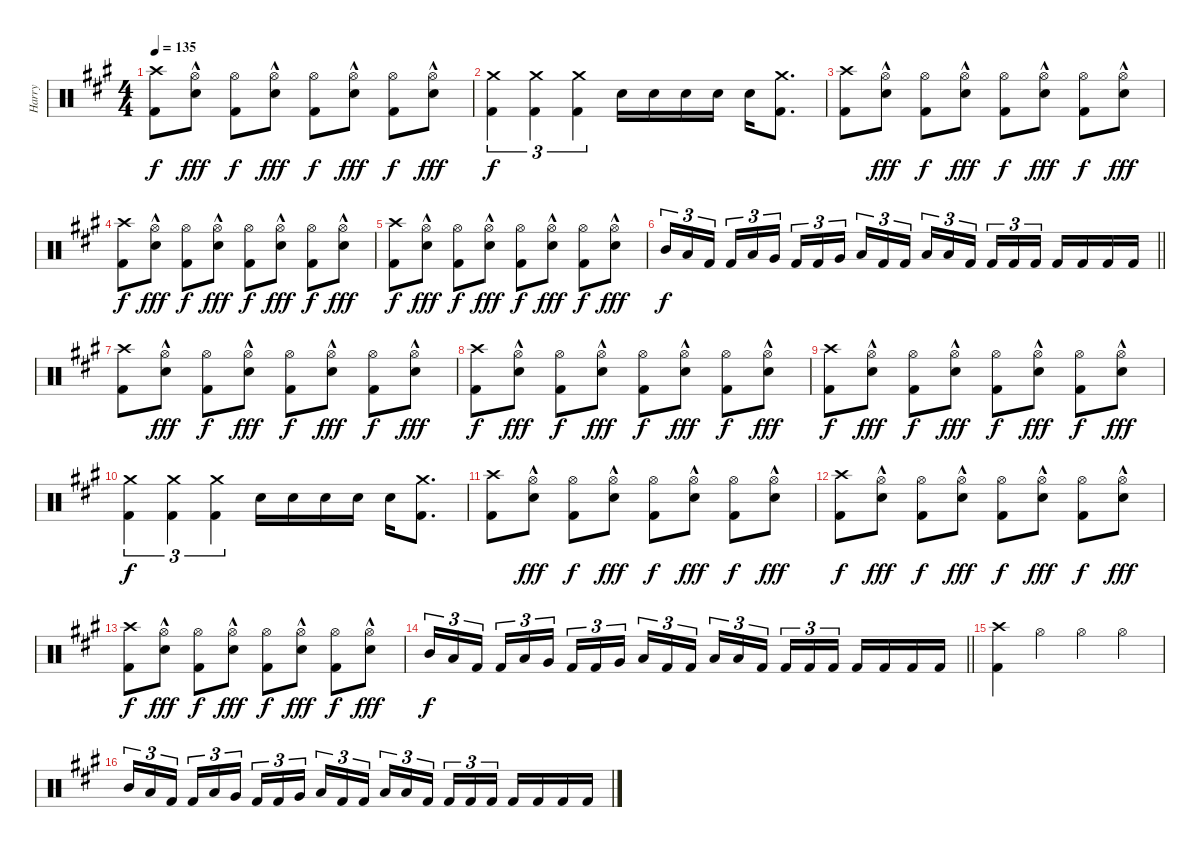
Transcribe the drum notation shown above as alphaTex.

\track ("Harry" "Harry") {instrument percussion}
\staff {score}
\articulation defaults
\ts (4 4)
\tempo 135
\clef neutral
\ks a
("Crash high (hit)" "Kick (hit) 2").8{dy f} ("Hi-Hat (open)"{hac} "Snare (hit) 2"{hac}).8{dy fff} ("Hi-Hat (open)" "Kick (hit) 2").8{dy f} ("Hi-Hat (open)"{hac} "Snare (hit) 2"{hac}).8{dy fff} ("Hi-Hat (open)" "Kick (hit) 2").8{dy f} ("Hi-Hat (open)"{hac} "Snare (hit) 2"{hac}).8{dy fff} ("Hi-Hat (open)" "Kick (hit) 2").8{dy f} ("Hi-Hat (open)"{hac} "Snare (hit) 2"{hac}).8{dy fff} |
("Crash medium (hit)" "Kick (hit) 2").4{tu (3 2) dy f} ("Crash medium (hit)" "Kick (hit) 2").4{tu (3 2)} ("Crash medium (hit)" "Kick (hit) 2").4{tu (3 2)} "Snare (hit) 2".16 "Snare (hit) 2".16 "Snare (hit) 2".16 "Snare (hit) 2".16 "Snare (hit) 2".16 ("Crash medium (hit)" "Kick (hit) 2").8{d} |
("Crash high (hit)" "Kick (hit) 2").8 ("Hi-Hat (open)"{hac} "Snare (hit) 2"{hac}).8{dy fff} ("Hi-Hat (open)" "Kick (hit) 2").8{dy f} ("Hi-Hat (open)"{hac} "Snare (hit) 2"{hac}).8{dy fff} ("Hi-Hat (open)" "Kick (hit) 2").8{dy f} ("Hi-Hat (open)"{hac} "Snare (hit) 2"{hac}).8{dy fff} ("Hi-Hat (open)" "Kick (hit) 2").8{dy f} ("Hi-Hat (open)"{hac} "Snare (hit) 2"{hac}).8{dy fff} |
("Crash high (hit)" "Kick (hit) 2").8{dy f} ("Hi-Hat (open)"{hac} "Snare (hit) 2"{hac}).8{dy fff} ("Hi-Hat (open)" "Kick (hit) 2").8{dy f} ("Hi-Hat (open)"{hac} "Snare (hit) 2"{hac}).8{dy fff} ("Hi-Hat (open)" "Kick (hit) 2").8{dy f} ("Hi-Hat (open)"{hac} "Snare (hit) 2"{hac}).8{dy fff} ("Hi-Hat (open)" "Kick (hit) 2").8{dy f} ("Hi-Hat (open)"{hac} "Snare (hit) 2"{hac}).8{dy fff} |
("Crash high (hit)" "Kick (hit) 2").8{dy f} ("Hi-Hat (open)"{hac} "Snare (hit) 2"{hac}).8{dy fff} ("Hi-Hat (open)" "Kick (hit) 2").8{dy f} ("Hi-Hat (open)"{hac} "Snare (hit) 2"{hac}).8{dy fff} ("Hi-Hat (open)" "Kick (hit) 2").8{dy f} ("Hi-Hat (open)"{hac} "Snare (hit) 2"{hac}).8{dy fff} ("Hi-Hat (open)" "Kick (hit) 2").8{dy f} ("Hi-Hat (open)"{hac} "Snare (hit) 2"{hac}).8{dy fff} |
\barLineRight lightlight "Mid Tom (hit)".16{tu (3 2) dy f} "Low Tom (hit)".16{tu (3 2)} "Kick (hit) 2".16{tu (3 2) beam splitsecondary} "Kick (hit) 2".16{tu (3 2)} "Low Tom (hit)".16{tu (3 2)} "Very Low Tom (hit)".16{tu (3 2)} "Kick (hit) 2".16{tu (3 2)} "Kick (hit) 2".16{tu (3 2)} "Very Low Tom (hit)".16{tu (3 2) beam splitsecondary} "Low Floor Tom (hit)".16{tu (3 2)} "Kick (hit) 2".16{tu (3 2)} "Kick (hit) 2".16{tu (3 2)} "Low Floor Tom (hit)".16{tu (3 2)} "Low Floor Tom (hit)".16{tu (3 2)} "Kick (hit) 2".16{tu (3 2) beam splitsecondary} "Kick (hit) 2".16{tu (3 2)} "Kick (hit) 2".16{tu (3 2)} "Kick (hit) 2".16{tu (3 2)} "Kick (hit) 2".16 "Kick (hit) 2".16 "Kick (hit) 2".16 "Kick (hit) 2".16
|
("Crash high (hit)" "Kick (hit) 2").8 ("Hi-Hat (open)"{hac} "Snare (hit) 2"{hac}).8{dy fff} ("Hi-Hat (open)" "Kick (hit) 2").8{dy f} ("Hi-Hat (open)"{hac} "Snare (hit) 2"{hac}).8{dy fff} ("Hi-Hat (open)" "Kick (hit) 2").8{dy f} ("Hi-Hat (open)"{hac} "Snare (hit) 2"{hac}).8{dy fff} ("Hi-Hat (open)" "Kick (hit) 2").8{dy f} ("Hi-Hat (open)"{hac} "Snare (hit) 2"{hac}).8{dy fff} |
("Crash high (hit)" "Kick (hit) 2").8{dy f} ("Hi-Hat (open)"{hac} "Snare (hit) 2"{hac}).8{dy fff} ("Hi-Hat (open)" "Kick (hit) 2").8{dy f} ("Hi-Hat (open)"{hac} "Snare (hit) 2"{hac}).8{dy fff} ("Hi-Hat (open)" "Kick (hit) 2").8{dy f} ("Hi-Hat (open)"{hac} "Snare (hit) 2"{hac}).8{dy fff} ("Hi-Hat (open)" "Kick (hit) 2").8{dy f} ("Hi-Hat (open)"{hac} "Snare (hit) 2"{hac}).8{dy fff} |
("Crash high (hit)" "Kick (hit) 2").8{dy f} ("Hi-Hat (open)"{hac} "Snare (hit) 2"{hac}).8{dy fff} ("Hi-Hat (open)" "Kick (hit) 2").8{dy f} ("Hi-Hat (open)"{hac} "Snare (hit) 2"{hac}).8{dy fff} ("Hi-Hat (open)" "Kick (hit) 2").8{dy f} ("Hi-Hat (open)"{hac} "Snare (hit) 2"{hac}).8{dy fff} ("Hi-Hat (open)" "Kick (hit) 2").8{dy f} ("Hi-Hat (open)"{hac} "Snare (hit) 2"{hac}).8{dy fff} |
("Crash medium (hit)" "Kick (hit) 2").4{tu (3 2) dy f} ("Crash medium (hit)" "Kick (hit) 2").4{tu (3 2)} ("Crash medium (hit)" "Kick (hit) 2").4{tu (3 2)} "Snare (hit) 2".16 "Snare (hit) 2".16 "Snare (hit) 2".16 "Snare (hit) 2".16 "Snare (hit) 2".16 ("Crash medium (hit)" "Kick (hit) 2").8{d} |
("Crash high (hit)" "Kick (hit) 2").8 ("Hi-Hat (open)"{hac} "Snare (hit) 2"{hac}).8{dy fff} ("Hi-Hat (open)" "Kick (hit) 2").8{dy f} ("Hi-Hat (open)"{hac} "Snare (hit) 2"{hac}).8{dy fff} ("Hi-Hat (open)" "Kick (hit) 2").8{dy f} ("Hi-Hat (open)"{hac} "Snare (hit) 2"{hac}).8{dy fff} ("Hi-Hat (open)" "Kick (hit) 2").8{dy f} ("Hi-Hat (open)"{hac} "Snare (hit) 2"{hac}).8{dy fff} |
("Crash high (hit)" "Kick (hit) 2").8{dy f} ("Hi-Hat (open)"{hac} "Snare (hit) 2"{hac}).8{dy fff} ("Hi-Hat (open)" "Kick (hit) 2").8{dy f} ("Hi-Hat (open)"{hac} "Snare (hit) 2"{hac}).8{dy fff} ("Hi-Hat (open)" "Kick (hit) 2").8{dy f} ("Hi-Hat (open)"{hac} "Snare (hit) 2"{hac}).8{dy fff} ("Hi-Hat (open)" "Kick (hit) 2").8{dy f} ("Hi-Hat (open)"{hac} "Snare (hit) 2"{hac}).8{dy fff} |
("Crash high (hit)" "Kick (hit) 2").8{dy f} ("Hi-Hat (open)"{hac} "Snare (hit) 2"{hac}).8{dy fff} ("Hi-Hat (open)" "Kick (hit) 2").8{dy f} ("Hi-Hat (open)"{hac} "Snare (hit) 2"{hac}).8{dy fff} ("Hi-Hat (open)" "Kick (hit) 2").8{dy f} ("Hi-Hat (open)"{hac} "Snare (hit) 2"{hac}).8{dy fff} ("Hi-Hat (open)" "Kick (hit) 2").8{dy f} ("Hi-Hat (open)"{hac} "Snare (hit) 2"{hac}).8{dy fff} |
\barLineRight lightlight "Mid Tom (hit)".16{tu (3 2) dy f} "Low Tom (hit)".16{tu (3 2)} "Kick (hit) 2".16{tu (3 2) beam splitsecondary} "Kick (hit) 2".16{tu (3 2)} "Low Tom (hit)".16{tu (3 2)} "Very Low Tom (hit)".16{tu (3 2)} "Kick (hit) 2".16{tu (3 2)} "Kick (hit) 2".16{tu (3 2)} "Very Low Tom (hit)".16{tu (3 2) beam splitsecondary} "Low Floor Tom (hit)".16{tu (3 2)} "Kick (hit) 2".16{tu (3 2)} "Kick (hit) 2".16{tu (3 2)} "Low Floor Tom (hit)".16{tu (3 2)} "Low Floor Tom (hit)".16{tu (3 2)} "Kick (hit) 2".16{tu (3 2) beam splitsecondary} "Kick (hit) 2".16{tu (3 2)} "Kick (hit) 2".16{tu (3 2)} "Kick (hit) 2".16{tu (3 2)} "Kick (hit) 2".16 "Kick (hit) 2".16 "Kick (hit) 2".16 "Kick (hit) 2".16
|
("Crash high (hit)" "Kick (hit) 2").4 "Hi-Hat (open)".4 "Hi-Hat (open)".4 "Hi-Hat (open)".4 |
"Mid Tom (hit)".16{tu (3 2)} "Low Tom (hit)".16{tu (3 2)} "Kick (hit) 2".16{tu (3 2) beam splitsecondary} "Kick (hit) 2".16{tu (3 2)} "Low Tom (hit)".16{tu (3 2)} "Very Low Tom (hit)".16{tu (3 2)} "Kick (hit) 2".16{tu (3 2)} "Kick (hit) 2".16{tu (3 2)} "Very Low Tom (hit)".16{tu (3 2) beam splitsecondary} "Low Floor Tom (hit)".16{tu (3 2)} "Kick (hit) 2".16{tu (3 2)} "Kick (hit) 2".16{tu (3 2)} "Low Floor Tom (hit)".16{tu (3 2)} "Low Floor Tom (hit)".16{tu (3 2)} "Kick (hit) 2".16{tu (3 2) beam splitsecondary} "Kick (hit) 2".16{tu (3 2)} "Kick (hit) 2".16{tu (3 2)} "Kick (hit) 2".16{tu (3 2)} "Kick (hit) 2".16 "Kick (hit) 2".16 "Kick (hit) 2".16 "Kick (hit) 2".16
